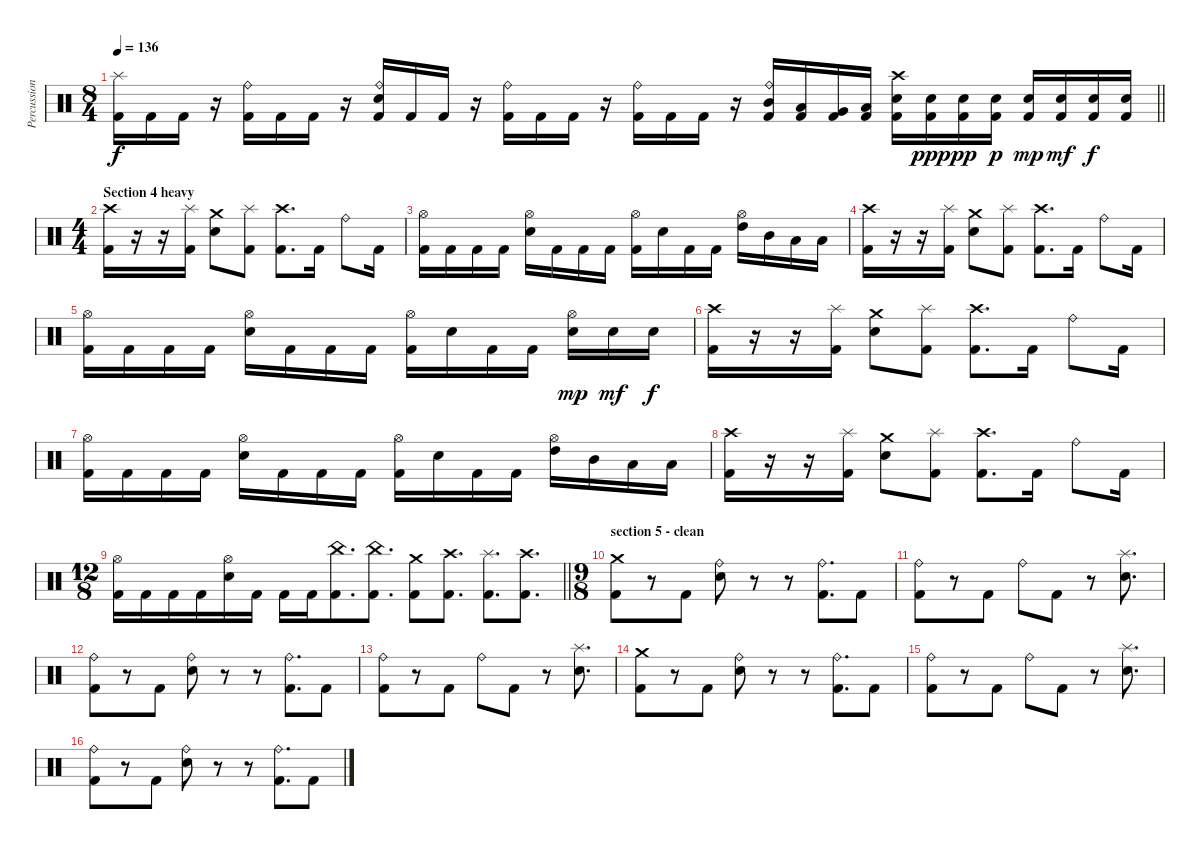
\track ("Percussion" "Percussion") {instrument percussion}
\staff {score}
\articulation defaults
\ts (8 4)
\tempo 136
\clef neutral
\barLineRight lightlight
\ks c
("Splash (hit)" "Kick (hit) 2").16{dy f} "Kick (hit) 2".16 "Kick (hit) 2".16 r.16 ("Ride (bell)" "Kick (hit) 2").16 "Kick (hit) 2".16 "Kick (hit) 2".16 r.16 ("Ride (bell)" "Electric Snare (hit)" "Kick (hit) 2").16 "Kick (hit) 2".16 "Kick (hit) 2".16 r.16 ("Ride (bell)" "Kick (hit) 2").16 "Kick (hit) 2".16 "Kick (hit) 2".16 r.16 ("Ride (bell)" "Kick (hit) 2").16 "Kick (hit) 2".16 "Kick (hit) 2".16 r.16 ("Ride (bell)" "Mid Tom (hit)" "Kick (hit) 2").16 ("Low Tom (hit)" "Kick (hit) 2").16 ("Very Low Tom (hit)" "Kick (hit) 2").16 ("Low Floor Tom (hit)" "Kick (hit) 2").16 ("Crash high (hit)" "Electric Snare (hit)" "Kick (hit) 2").16 ("Electric Snare (hit)" "Kick (hit) 2").16{dy ppp} ("Electric Snare (hit)" "Kick (hit) 2").16{dy pp} ("Electric Snare (hit)" "Kick (hit) 2").16{dy p} ("Electric Snare (hit)" "Kick (hit) 2").16{dy mp} ("Electric Snare (hit)" "Kick (hit) 2").16{dy mf} ("Electric Snare (hit)" "Kick (hit) 2").16{dy f} ("Electric Snare (hit)" "Kick (hit) 2").16 |
\ts (4 4)
\section ("" "Section 4 heavy")
("Crash high (hit)" "Kick (hit) 2").16 r.16 r.16 ("Splash (hit)" "Kick (hit) 2").16 ("Crash medium (hit)" "Electric Snare (hit)").8 ("Splash (hit)" "Kick (hit) 2").8 ("Crash high (hit)" "Kick (hit) 2").8{d} "Kick (hit) 2".16 "Ride (bell)".8 "Kick (hit) 2".16 |
("Hi-Hat (open)" "Kick (hit) 2").16 "Kick (hit) 2".16 "Kick (hit) 2".16 "Kick (hit) 2".16 ("Hi-Hat (open)" "Electric Snare (hit)").16 "Kick (hit) 2".16 "Kick (hit) 2".16 "Kick (hit) 2".16 ("Hi-Hat (open)" "Kick (hit) 2").16 "Electric Snare (hit)".16 "Kick (hit) 2".16 "Kick (hit) 2".16 ("Hi-Hat (open)" "High Tom (hit)").16 "Mid Tom (hit)".16 "Low Tom (hit)".16 "Low Tom (hit)".16 |
("Crash high (hit)" "Kick (hit) 2").16 r.16 r.16 ("Splash (hit)" "Kick (hit) 2").16 ("Crash medium (hit)" "Electric Snare (hit)").8 ("Splash (hit)" "Kick (hit) 2").8 ("Crash high (hit)" "Kick (hit) 2").8{d} "Kick (hit) 2".16 "Ride (bell)".8 "Kick (hit) 2".16 |
("Hi-Hat (open)" "Kick (hit) 2").16 "Kick (hit) 2".16 "Kick (hit) 2".16 "Kick (hit) 2".16 ("Hi-Hat (open)" "Electric Snare (hit)").16 "Kick (hit) 2".16 "Kick (hit) 2".16 "Kick (hit) 2".16 ("Hi-Hat (open)" "Kick (hit) 2").16 "Electric Snare (hit)".16 "Kick (hit) 2".16 "Kick (hit) 2".16 ("Hi-Hat (open)" "Electric Snare (hit)").16{dy mp} "Electric Snare (hit)".16{dy mf} "Electric Snare (hit)".16{dy f} |
("Crash high (hit)" "Kick (hit) 2").16 r.16 r.16 ("Splash (hit)" "Kick (hit) 2").16 ("Crash medium (hit)" "Electric Snare (hit)").8 ("Splash (hit)" "Kick (hit) 2").8 ("Crash high (hit)" "Kick (hit) 2").8{d} "Kick (hit) 2".16 "Ride (bell)".8 "Kick (hit) 2".16 |
("Hi-Hat (open)" "Kick (hit) 2").16 "Kick (hit) 2".16 "Kick (hit) 2".16 "Kick (hit) 2".16 ("Hi-Hat (open)" "Electric Snare (hit)").16 "Kick (hit) 2".16 "Kick (hit) 2".16 "Kick (hit) 2".16 ("Hi-Hat (open)" "Kick (hit) 2").16 "Electric Snare (hit)".16 "Kick (hit) 2".16 "Kick (hit) 2".16 ("Hi-Hat (open)" "High Tom (hit)").16 "Mid Tom (hit)".16 "Low Tom (hit)".16 "Low Tom (hit)".16 |
("Crash high (hit)" "Kick (hit) 2").16 r.16 r.16 ("Splash (hit)" "Kick (hit) 2").16 ("Crash medium (hit)" "Electric Snare (hit)").8 ("Splash (hit)" "Kick (hit) 2").8 ("Crash high (hit)" "Kick (hit) 2").8{d} "Kick (hit) 2".16 "Ride (bell)".8 "Kick (hit) 2".16 |
\ts (12 8)
\barLineRight lightlight
("Hi-Hat (open)" "Kick (hit) 2").16 "Kick (hit) 2".16 "Kick (hit) 2".16 "Kick (hit) 2".16 ("Hi-Hat (open)" "Electric Snare (hit)").16 "Kick (hit) 2".16 "Kick (hit) 2".16 "Kick (hit) 2".16 ("China (hit)" "Kick (hit) 2").8{d} ("China (hit)" "Kick (hit) 2").8{d} ("Crash medium (hit)" "Kick (hit) 2").8 ("Crash high (hit)" "Kick (hit) 2").8{d} ("Splash (hit)" "Kick (hit) 2").8{d} ("Crash high (hit)" "Kick (hit) 2").8{d} |
\ts (9 8)
\section ("" "section 5 - clean")
("Crash medium (hit)" "Kick (hit) 2").8 r.8 "Kick (hit) 2".8 ("Ride (bell)" "Electric Snare (hit)").8 r.8 r.8 ("Ride (bell)" "Kick (hit) 2").8{d} "Kick (hit) 2".8 |
("Ride (bell)" "Kick (hit) 2").8 r.8 "Kick (hit) 2".8 "Ride (bell)".8 "Kick (hit) 2".8 r.8 ("Splash (hit)" "Electric Snare (hit)").8{d} |
("Ride (bell)" "Kick (hit) 2").8 r.8 "Kick (hit) 2".8 ("Ride (bell)" "Electric Snare (hit)").8 r.8 r.8 ("Ride (bell)" "Kick (hit) 2").8{d} "Kick (hit) 2".8 |
("Ride (bell)" "Kick (hit) 2").8 r.8 "Kick (hit) 2".8 "Ride (bell)".8 "Kick (hit) 2".8 r.8 ("Splash (hit)" "Electric Snare (hit)").8{d} |
("Crash medium (hit)" "Kick (hit) 2").8 r.8 "Kick (hit) 2".8 ("Ride (bell)" "Electric Snare (hit)").8 r.8 r.8 ("Ride (bell)" "Kick (hit) 2").8{d} "Kick (hit) 2".8 |
("Ride (bell)" "Kick (hit) 2").8 r.8 "Kick (hit) 2".8 "Ride (bell)".8 "Kick (hit) 2".8 r.8 ("Splash (hit)" "Electric Snare (hit)").8{d} |
("Ride (bell)" "Kick (hit) 2").8 r.8 "Kick (hit) 2".8 ("Ride (bell)" "Electric Snare (hit)").8 r.8 r.8 ("Ride (bell)" "Kick (hit) 2").8{d} "Kick (hit) 2".8
